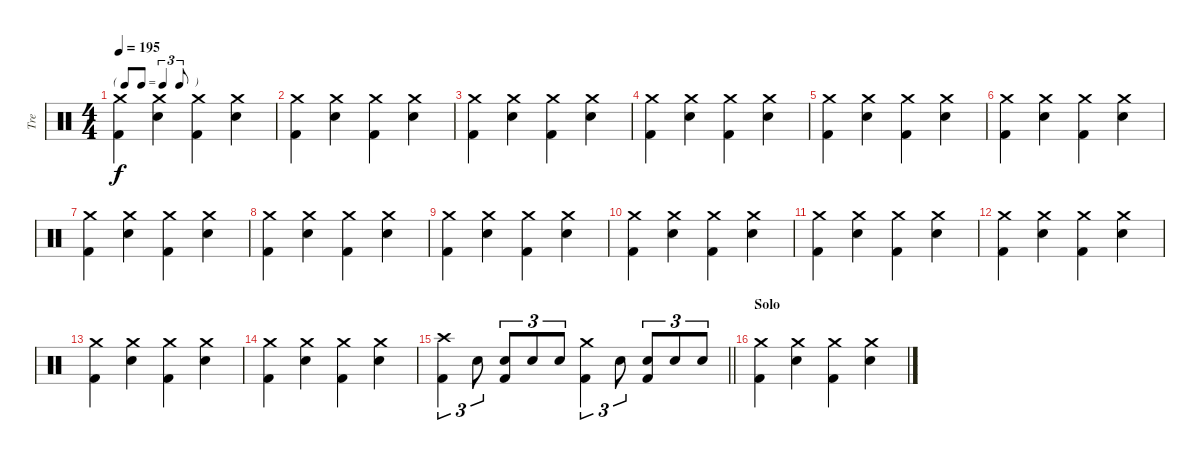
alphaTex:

\track ("Tre" "Tre") {instrument percussion}
\staff {score}
\articulation defaults
\ts (4 4)
\tf triplet8th
\tempo 195
\clef neutral
\ks c
("Crash medium (hit)" "Kick (hit) 2").4{dy f} ("Crash medium (hit)" "Snare (hit) 2").4 ("Crash medium (hit)" "Kick (hit) 2").4 ("Crash medium (hit)" "Snare (hit) 2").4 |
("Crash medium (hit)" "Kick (hit) 2").4 ("Crash medium (hit)" "Snare (hit) 2").4 ("Crash medium (hit)" "Kick (hit) 2").4 ("Crash medium (hit)" "Snare (hit) 2").4 |
("Crash medium (hit)" "Kick (hit) 2").4 ("Crash medium (hit)" "Snare (hit) 2").4 ("Crash medium (hit)" "Kick (hit) 2").4 ("Crash medium (hit)" "Snare (hit) 2").4 |
("Crash medium (hit)" "Kick (hit) 2").4 ("Crash medium (hit)" "Snare (hit) 2").4 ("Crash medium (hit)" "Kick (hit) 2").4 ("Crash medium (hit)" "Snare (hit) 2").4 |
("Crash medium (hit)" "Kick (hit) 2").4 ("Crash medium (hit)" "Snare (hit) 2").4 ("Crash medium (hit)" "Kick (hit) 2").4 ("Crash medium (hit)" "Snare (hit) 2").4 |
("Crash medium (hit)" "Kick (hit) 2").4 ("Crash medium (hit)" "Snare (hit) 2").4 ("Crash medium (hit)" "Kick (hit) 2").4 ("Crash medium (hit)" "Snare (hit) 2").4 |
("Crash medium (hit)" "Kick (hit) 2").4 ("Crash medium (hit)" "Snare (hit) 2").4 ("Crash medium (hit)" "Kick (hit) 2").4 ("Crash medium (hit)" "Snare (hit) 2").4 |
("Crash medium (hit)" "Kick (hit) 2").4 ("Crash medium (hit)" "Snare (hit) 2").4 ("Crash medium (hit)" "Kick (hit) 2").4 ("Crash medium (hit)" "Snare (hit) 2").4 |
("Crash medium (hit)" "Kick (hit) 2").4 ("Crash medium (hit)" "Snare (hit) 2").4 ("Crash medium (hit)" "Kick (hit) 2").4 ("Crash medium (hit)" "Snare (hit) 2").4 |
("Crash medium (hit)" "Kick (hit) 2").4 ("Crash medium (hit)" "Snare (hit) 2").4 ("Crash medium (hit)" "Kick (hit) 2").4 ("Crash medium (hit)" "Snare (hit) 2").4 |
("Crash medium (hit)" "Kick (hit) 2").4 ("Crash medium (hit)" "Snare (hit) 2").4 ("Crash medium (hit)" "Kick (hit) 2").4 ("Crash medium (hit)" "Snare (hit) 2").4 |
("Crash medium (hit)" "Kick (hit) 2").4 ("Crash medium (hit)" "Snare (hit) 2").4 ("Crash medium (hit)" "Kick (hit) 2").4 ("Crash medium (hit)" "Snare (hit) 2").4 |
("Crash medium (hit)" "Kick (hit) 2").4 ("Crash medium (hit)" "Snare (hit) 2").4 ("Crash medium (hit)" "Kick (hit) 2").4 ("Crash medium (hit)" "Snare (hit) 2").4 |
("Crash medium (hit)" "Kick (hit) 2").4 ("Crash medium (hit)" "Snare (hit) 2").4 ("Crash medium (hit)" "Kick (hit) 2").4 ("Crash medium (hit)" "Snare (hit) 2").4 |
\barLineRight lightlight
("Crash high (hit)" "Kick (hit) 2").4{tu (3 2)} "Snare (hit) 2".8{tu (3 2)} ("Snare (hit) 2" "Kick (hit) 2").8{tu (3 2)} "Snare (hit) 2".8{tu (3 2)} "Snare (hit) 2".8{tu (3 2)} ("Crash medium (hit)" "Kick (hit) 2").4{tu (3 2)} "Snare (hit) 2".8{tu (3 2)} ("Snare (hit) 2" "Kick (hit) 2").8{tu (3 2)} "Snare (hit) 2".8{tu (3 2)} "Snare (hit) 2".8{tu (3 2)} |
\section ("" "Solo")
("Crash medium (hit)" "Kick (hit) 2").4 ("Crash medium (hit)" "Snare (hit) 2").4 ("Crash medium (hit)" "Kick (hit) 2").4 ("Crash medium (hit)" "Snare (hit) 2").4
